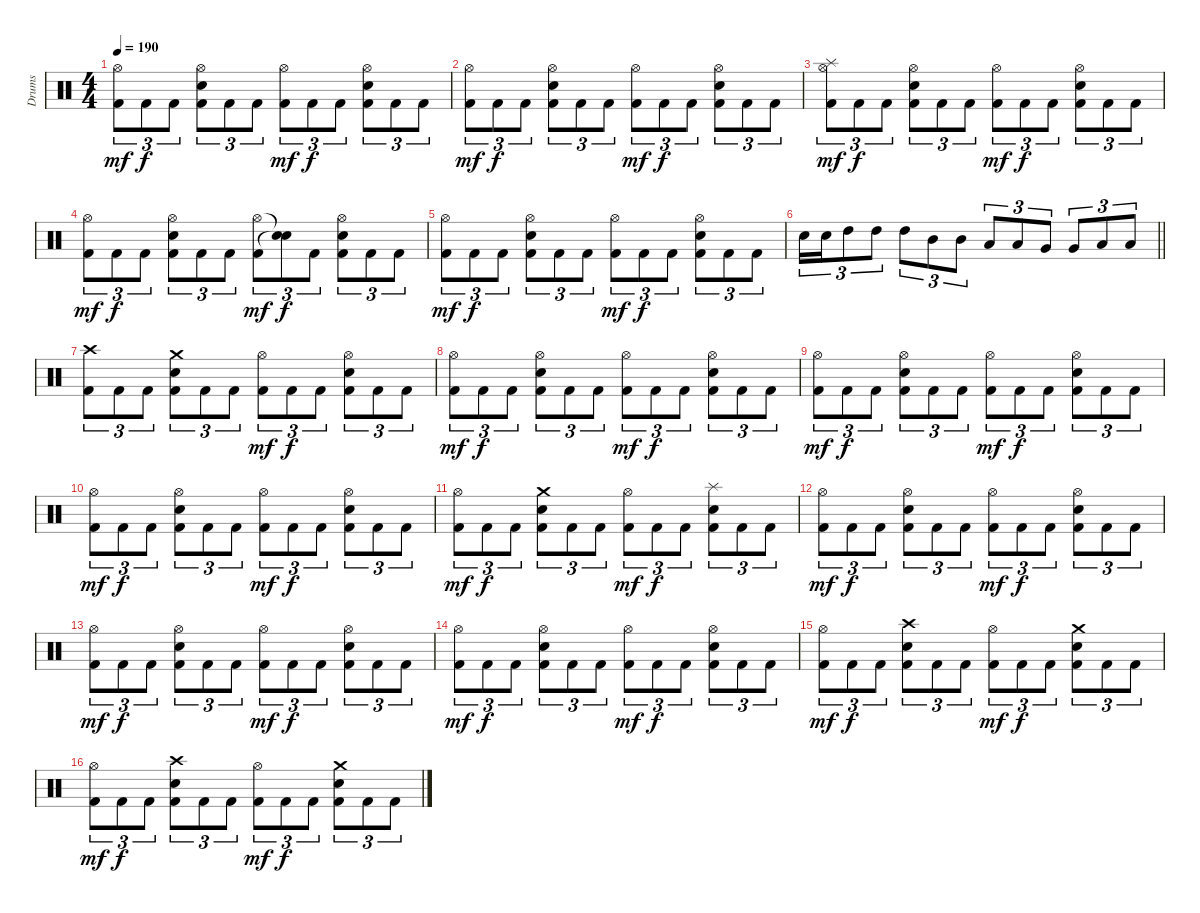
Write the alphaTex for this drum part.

\track ("Drums" "Drums") {instrument percussion}
\staff {score}
\articulation defaults
\ts (4 4)
\tempo 190
\clef neutral
\ks c
("Hi-Hat (open)" "Kick (hit) 2").8{tu (3 2) dy mf} "Kick (hit) 2".8{tu (3 2) dy f} "Kick (hit) 2".8{tu (3 2)} ("Hi-Hat (open)" "Electric Snare (hit)" "Kick (hit) 2").8{tu (3 2)} "Kick (hit) 2".8{tu (3 2)} "Kick (hit) 2".8{tu (3 2)} ("Hi-Hat (open)" "Kick (hit) 2").8{tu (3 2) dy mf} "Kick (hit) 2".8{tu (3 2) dy f} "Kick (hit) 2".8{tu (3 2)} ("Hi-Hat (open)" "Electric Snare (hit)" "Kick (hit) 2").8{tu (3 2)} "Kick (hit) 2".8{tu (3 2)} "Kick (hit) 2".8{tu (3 2)} |
("Hi-Hat (open)" "Kick (hit) 2").8{tu (3 2) dy mf} "Kick (hit) 2".8{tu (3 2) dy f} "Kick (hit) 2".8{tu (3 2)} ("Hi-Hat (open)" "Electric Snare (hit)" "Kick (hit) 2").8{tu (3 2)} "Kick (hit) 2".8{tu (3 2)} "Kick (hit) 2".8{tu (3 2)} ("Hi-Hat (open)" "Kick (hit) 2").8{tu (3 2) dy mf} "Kick (hit) 2".8{tu (3 2) dy f} "Kick (hit) 2".8{tu (3 2)} ("Hi-Hat (open)" "Electric Snare (hit)" "Kick (hit) 2").8{tu (3 2)} "Kick (hit) 2".8{tu (3 2)} "Kick (hit) 2".8{tu (3 2)} |
("Splash (hit)" "Hi-Hat (open)" "Kick (hit) 2").8{tu (3 2) dy mf} "Kick (hit) 2".8{tu (3 2) dy f} "Kick (hit) 2".8{tu (3 2)} ("Hi-Hat (open)" "Electric Snare (hit)" "Kick (hit) 2").8{tu (3 2)} "Kick (hit) 2".8{tu (3 2)} "Kick (hit) 2".8{tu (3 2)} ("Hi-Hat (open)" "Kick (hit) 2").8{tu (3 2) dy mf} "Kick (hit) 2".8{tu (3 2) dy f} "Kick (hit) 2".8{tu (3 2)} ("Hi-Hat (open)" "Electric Snare (hit)" "Kick (hit) 2").8{tu (3 2)} "Kick (hit) 2".8{tu (3 2)} "Kick (hit) 2".8{tu (3 2)} |
("Hi-Hat (open)" "Kick (hit) 2").8{tu (3 2) dy mf} "Kick (hit) 2".8{tu (3 2) dy f} "Kick (hit) 2".8{tu (3 2)} ("Hi-Hat (open)" "Electric Snare (hit)" "Kick (hit) 2").8{tu (3 2)} "Kick (hit) 2".8{tu (3 2)} "Kick (hit) 2".8{tu (3 2)} ("Hi-Hat (open)" "Kick (hit) 2").8{tu (3 2) dy mf} ("Snare (hit)"{t} "Snare (hit)"{t}).8{tu (3 2) dy f} "Kick (hit) 2".8{tu (3 2)} ("Hi-Hat (open)" "Electric Snare (hit)" "Kick (hit) 2").8{tu (3 2)} "Kick (hit) 2".8{tu (3 2)} "Kick (hit) 2".8{tu (3 2)} |
("Hi-Hat (open)" "Kick (hit) 2").8{tu (3 2) dy mf} "Kick (hit) 2".8{tu (3 2) dy f} "Kick (hit) 2".8{tu (3 2)} ("Hi-Hat (open)" "Electric Snare (hit)" "Kick (hit) 2").8{tu (3 2)} "Kick (hit) 2".8{tu (3 2)} "Kick (hit) 2".8{tu (3 2)} ("Hi-Hat (open)" "Kick (hit) 2").8{tu (3 2) dy mf} "Kick (hit) 2".8{tu (3 2) dy f} "Kick (hit) 2".8{tu (3 2)} ("Hi-Hat (open)" "Electric Snare (hit)" "Kick (hit) 2").8{tu (3 2)} "Kick (hit) 2".8{tu (3 2)} "Kick (hit) 2".8{tu (3 2)} |
\barLineRight lightlight "Electric Snare (hit)".16{tu (3 2)} "Electric Snare (hit)".16{tu (3 2)} "High Tom (hit)".8{tu (3 2)} "High Tom (hit)".8{tu (3 2)} "High Tom (hit)".8{tu (3 2)} "Mid Tom (hit)".8{tu (3 2)} "Mid Tom (hit)".8{tu (3 2)} "Low Tom (hit)".8{tu (3 2)} "Low Tom (hit)".8{tu (3 2)} "Very Low Tom (hit)".8{tu (3 2)} "Very Low Tom (hit)".8{tu (3 2)} "Low Floor Tom (hit)".8{tu (3 2)} "Low Floor Tom (hit)".8{tu (3 2)}
|
("Crash high (hit)" "Kick (hit) 2").8{tu (3 2)} "Kick (hit) 2".8{tu (3 2)} "Kick (hit) 2".8{tu (3 2)} ("Crash medium (hit)" "Electric Snare (hit)" "Kick (hit) 2").8{tu (3 2)} "Kick (hit) 2".8{tu (3 2)} "Kick (hit) 2".8{tu (3 2)} ("Hi-Hat (open)" "Kick (hit) 2").8{tu (3 2) dy mf} "Kick (hit) 2".8{tu (3 2) dy f} "Kick (hit) 2".8{tu (3 2)} ("Hi-Hat (open)" "Electric Snare (hit)" "Kick (hit) 2").8{tu (3 2)} "Kick (hit) 2".8{tu (3 2)} "Kick (hit) 2".8{tu (3 2)} |
("Hi-Hat (open)" "Kick (hit) 2").8{tu (3 2) dy mf} "Kick (hit) 2".8{tu (3 2) dy f} "Kick (hit) 2".8{tu (3 2)} ("Hi-Hat (open)" "Electric Snare (hit)" "Kick (hit) 2").8{tu (3 2)} "Kick (hit) 2".8{tu (3 2)} "Kick (hit) 2".8{tu (3 2)} ("Hi-Hat (open)" "Kick (hit) 2").8{tu (3 2) dy mf} "Kick (hit) 2".8{tu (3 2) dy f} "Kick (hit) 2".8{tu (3 2)} ("Hi-Hat (open)" "Electric Snare (hit)" "Kick (hit) 2").8{tu (3 2)} "Kick (hit) 2".8{tu (3 2)} "Kick (hit) 2".8{tu (3 2)} |
("Hi-Hat (open)" "Kick (hit) 2").8{tu (3 2) dy mf} "Kick (hit) 2".8{tu (3 2) dy f} "Kick (hit) 2".8{tu (3 2)} ("Hi-Hat (open)" "Electric Snare (hit)" "Kick (hit) 2").8{tu (3 2)} "Kick (hit) 2".8{tu (3 2)} "Kick (hit) 2".8{tu (3 2)} ("Hi-Hat (open)" "Kick (hit) 2").8{tu (3 2) dy mf} "Kick (hit) 2".8{tu (3 2) dy f} "Kick (hit) 2".8{tu (3 2)} ("Hi-Hat (open)" "Electric Snare (hit)" "Kick (hit) 2").8{tu (3 2)} "Kick (hit) 2".8{tu (3 2)} "Kick (hit) 2".8{tu (3 2)} |
("Hi-Hat (open)" "Kick (hit) 2").8{tu (3 2) dy mf} "Kick (hit) 2".8{tu (3 2) dy f} "Kick (hit) 2".8{tu (3 2)} ("Hi-Hat (open)" "Electric Snare (hit)" "Kick (hit) 2").8{tu (3 2)} "Kick (hit) 2".8{tu (3 2)} "Kick (hit) 2".8{tu (3 2)} ("Hi-Hat (open)" "Kick (hit) 2").8{tu (3 2) dy mf} "Kick (hit) 2".8{tu (3 2) dy f} "Kick (hit) 2".8{tu (3 2)} ("Hi-Hat (open)" "Electric Snare (hit)" "Kick (hit) 2").8{tu (3 2)} "Kick (hit) 2".8{tu (3 2)} "Kick (hit) 2".8{tu (3 2)} |
("Hi-Hat (open)" "Kick (hit) 2").8{tu (3 2) dy mf} "Kick (hit) 2".8{tu (3 2) dy f} "Kick (hit) 2".8{tu (3 2)} ("Crash medium (hit)" "Electric Snare (hit)" "Kick (hit) 2").8{tu (3 2)} "Kick (hit) 2".8{tu (3 2)} "Kick (hit) 2".8{tu (3 2)} ("Hi-Hat (open)" "Kick (hit) 2").8{tu (3 2) dy mf} "Kick (hit) 2".8{tu (3 2) dy f} "Kick (hit) 2".8{tu (3 2)} ("Splash (hit)" "Electric Snare (hit)" "Kick (hit) 2").8{tu (3 2)} "Kick (hit) 2".8{tu (3 2)} "Kick (hit) 2".8{tu (3 2)} |
("Hi-Hat (open)" "Kick (hit) 2").8{tu (3 2) dy mf} "Kick (hit) 2".8{tu (3 2) dy f} "Kick (hit) 2".8{tu (3 2)} ("Hi-Hat (open)" "Electric Snare (hit)" "Kick (hit) 2").8{tu (3 2)} "Kick (hit) 2".8{tu (3 2)} "Kick (hit) 2".8{tu (3 2)} ("Hi-Hat (open)" "Kick (hit) 2").8{tu (3 2) dy mf} "Kick (hit) 2".8{tu (3 2) dy f} "Kick (hit) 2".8{tu (3 2)} ("Hi-Hat (open)" "Electric Snare (hit)" "Kick (hit) 2").8{tu (3 2)} "Kick (hit) 2".8{tu (3 2)} "Kick (hit) 2".8{tu (3 2)} |
("Hi-Hat (open)" "Kick (hit) 2").8{tu (3 2) dy mf} "Kick (hit) 2".8{tu (3 2) dy f} "Kick (hit) 2".8{tu (3 2)} ("Hi-Hat (open)" "Electric Snare (hit)" "Kick (hit) 2").8{tu (3 2)} "Kick (hit) 2".8{tu (3 2)} "Kick (hit) 2".8{tu (3 2)} ("Hi-Hat (open)" "Kick (hit) 2").8{tu (3 2) dy mf} "Kick (hit) 2".8{tu (3 2) dy f} "Kick (hit) 2".8{tu (3 2)} ("Hi-Hat (open)" "Electric Snare (hit)" "Kick (hit) 2").8{tu (3 2)} "Kick (hit) 2".8{tu (3 2)} "Kick (hit) 2".8{tu (3 2)} |
("Hi-Hat (open)" "Kick (hit) 2").8{tu (3 2) dy mf} "Kick (hit) 2".8{tu (3 2) dy f} "Kick (hit) 2".8{tu (3 2)} ("Hi-Hat (open)" "Electric Snare (hit)" "Kick (hit) 2").8{tu (3 2)} "Kick (hit) 2".8{tu (3 2)} "Kick (hit) 2".8{tu (3 2)} ("Hi-Hat (open)" "Kick (hit) 2").8{tu (3 2) dy mf} "Kick (hit) 2".8{tu (3 2) dy f} "Kick (hit) 2".8{tu (3 2)} ("Hi-Hat (open)" "Electric Snare (hit)" "Kick (hit) 2").8{tu (3 2)} "Kick (hit) 2".8{tu (3 2)} "Kick (hit) 2".8{tu (3 2)} |
("Hi-Hat (open)" "Kick (hit) 2").8{tu (3 2) dy mf} "Kick (hit) 2".8{tu (3 2) dy f} "Kick (hit) 2".8{tu (3 2)} ("Crash high (hit)" "Electric Snare (hit)" "Kick (hit) 2").8{tu (3 2)} "Kick (hit) 2".8{tu (3 2)} "Kick (hit) 2".8{tu (3 2)} ("Hi-Hat (open)" "Kick (hit) 2").8{tu (3 2) dy mf} "Kick (hit) 2".8{tu (3 2) dy f} "Kick (hit) 2".8{tu (3 2)} ("Crash medium (hit)" "Electric Snare (hit)" "Kick (hit) 2").8{tu (3 2)} "Kick (hit) 2".8{tu (3 2)} "Kick (hit) 2".8{tu (3 2)} |
("Hi-Hat (open)" "Kick (hit) 2").8{tu (3 2) dy mf} "Kick (hit) 2".8{tu (3 2) dy f} "Kick (hit) 2".8{tu (3 2)} ("Crash high (hit)" "Electric Snare (hit)" "Kick (hit) 2").8{tu (3 2)} "Kick (hit) 2".8{tu (3 2)} "Kick (hit) 2".8{tu (3 2)} ("Hi-Hat (open)" "Kick (hit) 2").8{tu (3 2) dy mf} "Kick (hit) 2".8{tu (3 2) dy f} "Kick (hit) 2".8{tu (3 2)} ("Crash medium (hit)" "Electric Snare (hit)" "Kick (hit) 2").8{tu (3 2)} "Kick (hit) 2".8{tu (3 2)} "Kick (hit) 2".8{tu (3 2)}
